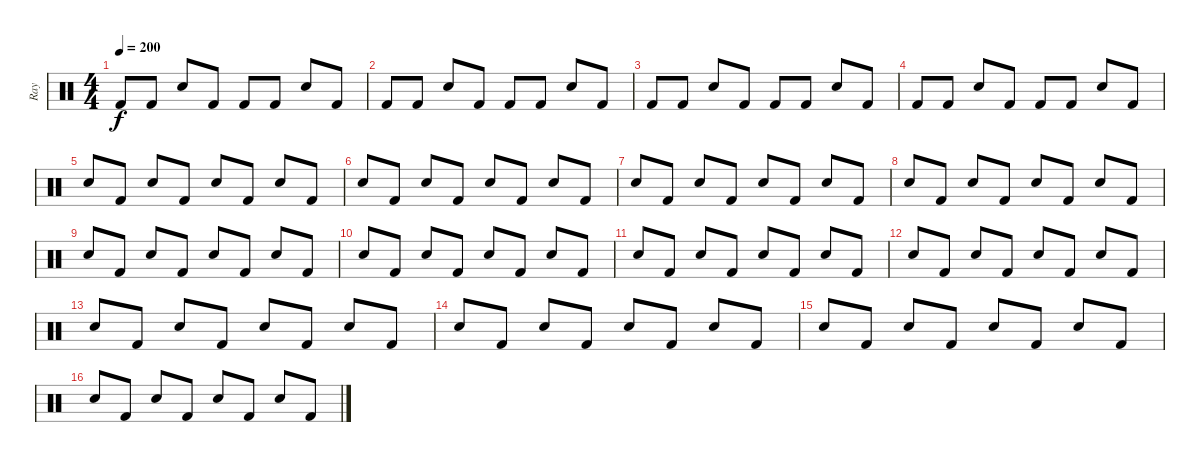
\track ("Ray" "Ray") {instrument percussion}
\staff {score}
\articulation defaults
\ts (4 4)
\tempo 200
\clef neutral
\ks c "Kick (hit) 2".8{dy f} "Kick (hit) 2".8 "Electric Snare (hit)".8 "Kick (hit) 2".8 "Kick (hit) 2".8 "Kick (hit) 2".8 "Electric Snare (hit)".8 "Kick (hit) 2".8
|
"Kick (hit) 2".8 "Kick (hit) 2".8 "Electric Snare (hit)".8 "Kick (hit) 2".8 "Kick (hit) 2".8 "Kick (hit) 2".8 "Electric Snare (hit)".8 "Kick (hit) 2".8 |
"Kick (hit) 2".8 "Kick (hit) 2".8 "Electric Snare (hit)".8 "Kick (hit) 2".8 "Kick (hit) 2".8 "Kick (hit) 2".8 "Electric Snare (hit)".8 "Kick (hit) 2".8 |
"Kick (hit) 2".8 "Kick (hit) 2".8 "Electric Snare (hit)".8 "Kick (hit) 2".8 "Kick (hit) 2".8 "Kick (hit) 2".8 "Electric Snare (hit)".8 "Kick (hit) 2".8 |
"Electric Snare (hit)".8 "Kick (hit) 2".8 "Electric Snare (hit)".8 "Kick (hit) 2".8 "Electric Snare (hit)".8 "Kick (hit) 2".8 "Electric Snare (hit)".8 "Kick (hit) 2".8 |
"Electric Snare (hit)".8 "Kick (hit) 2".8 "Electric Snare (hit)".8 "Kick (hit) 2".8 "Electric Snare (hit)".8 "Kick (hit) 2".8 "Electric Snare (hit)".8 "Kick (hit) 2".8 |
"Electric Snare (hit)".8 "Kick (hit) 2".8 "Electric Snare (hit)".8 "Kick (hit) 2".8 "Electric Snare (hit)".8 "Kick (hit) 2".8 "Electric Snare (hit)".8 "Kick (hit) 2".8 |
"Electric Snare (hit)".8 "Kick (hit) 2".8 "Electric Snare (hit)".8 "Kick (hit) 2".8 "Electric Snare (hit)".8 "Kick (hit) 2".8 "Electric Snare (hit)".8 "Kick (hit) 2".8 |
"Electric Snare (hit)".8 "Kick (hit) 2".8 "Electric Snare (hit)".8 "Kick (hit) 2".8 "Electric Snare (hit)".8 "Kick (hit) 2".8 "Electric Snare (hit)".8 "Kick (hit) 2".8 |
"Electric Snare (hit)".8 "Kick (hit) 2".8 "Electric Snare (hit)".8 "Kick (hit) 2".8 "Electric Snare (hit)".8 "Kick (hit) 2".8 "Electric Snare (hit)".8 "Kick (hit) 2".8 |
"Electric Snare (hit)".8 "Kick (hit) 2".8 "Electric Snare (hit)".8 "Kick (hit) 2".8 "Electric Snare (hit)".8 "Kick (hit) 2".8 "Electric Snare (hit)".8 "Kick (hit) 2".8 |
"Electric Snare (hit)".8 "Kick (hit) 2".8 "Electric Snare (hit)".8 "Kick (hit) 2".8 "Electric Snare (hit)".8 "Kick (hit) 2".8 "Electric Snare (hit)".8 "Kick (hit) 2".8 |
"Electric Snare (hit)".8 "Kick (hit) 2".8 "Electric Snare (hit)".8 "Kick (hit) 2".8 "Electric Snare (hit)".8 "Kick (hit) 2".8 "Electric Snare (hit)".8 "Kick (hit) 2".8 |
"Electric Snare (hit)".8 "Kick (hit) 2".8 "Electric Snare (hit)".8 "Kick (hit) 2".8 "Electric Snare (hit)".8 "Kick (hit) 2".8 "Electric Snare (hit)".8 "Kick (hit) 2".8 |
"Electric Snare (hit)".8 "Kick (hit) 2".8 "Electric Snare (hit)".8 "Kick (hit) 2".8 "Electric Snare (hit)".8 "Kick (hit) 2".8 "Electric Snare (hit)".8 "Kick (hit) 2".8 |
"Electric Snare (hit)".8 "Kick (hit) 2".8 "Electric Snare (hit)".8 "Kick (hit) 2".8 "Electric Snare (hit)".8 "Kick (hit) 2".8 "Electric Snare (hit)".8 "Kick (hit) 2".8
